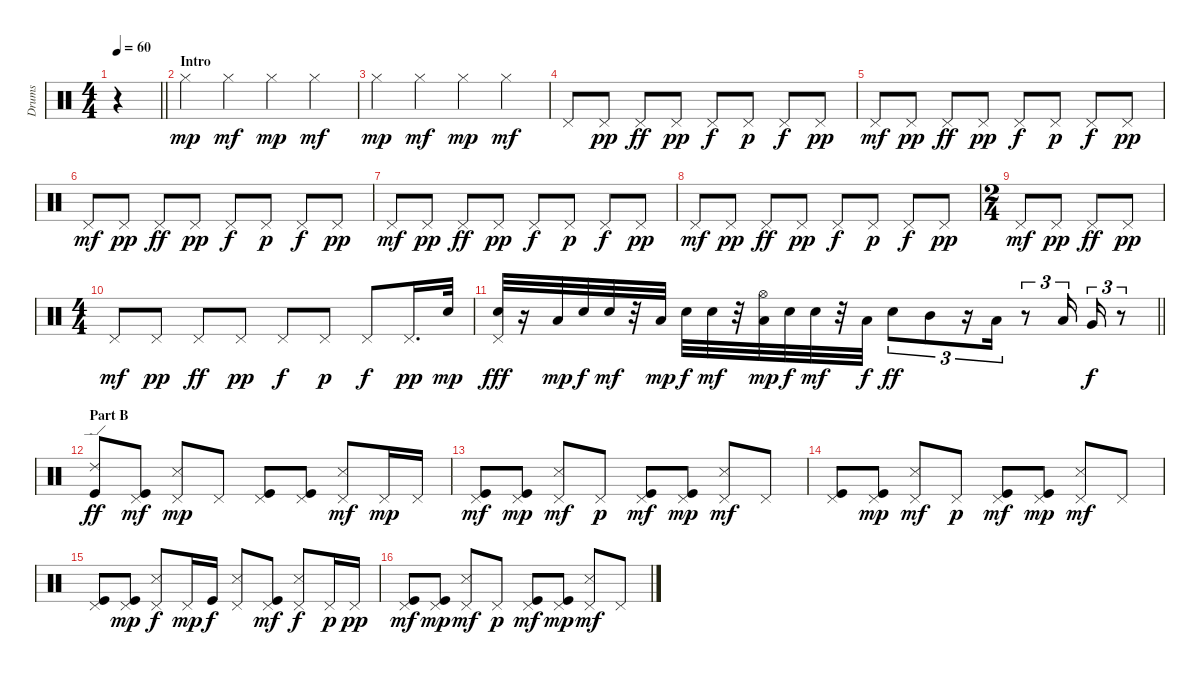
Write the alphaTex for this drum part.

\track ("Drums" "Drums") {instrument percussion}
\staff {score}
\articulation defaults
\ts (4 4)
\tempo 60
\clef neutral
\barLineRight lightlight
\ks c
r.4{dy mp} |
\section ("" "Intro")
"Hi-Hat (closed)".4{volume 10} "Hi-Hat (closed)".4{dy mf} "Hi-Hat (closed)".4{dy mp} "Hi-Hat (closed)".4{dy mf} |
"Hi-Hat (closed)".4{dy mp} "Hi-Hat (closed)".4{dy mf} "Hi-Hat (closed)".4{dy mp} "Hi-Hat (closed)".4{dy mf} |
"Pedal Hi-Hat (hit)".8 "Pedal Hi-Hat (hit)".8{dy pp} "Pedal Hi-Hat (hit)".8{dy ff} "Pedal Hi-Hat (hit)".8{dy pp} "Pedal Hi-Hat (hit)".8{dy f} "Pedal Hi-Hat (hit)".8{dy p} "Pedal Hi-Hat (hit)".8{dy f} "Pedal Hi-Hat (hit)".8{dy pp} |
"Pedal Hi-Hat (hit)".8{dy mf} "Pedal Hi-Hat (hit)".8{dy pp} "Pedal Hi-Hat (hit)".8{dy ff} "Pedal Hi-Hat (hit)".8{dy pp} "Pedal Hi-Hat (hit)".8{dy f} "Pedal Hi-Hat (hit)".8{dy p} "Pedal Hi-Hat (hit)".8{dy f} "Pedal Hi-Hat (hit)".8{dy pp} |
"Pedal Hi-Hat (hit)".8{dy mf} "Pedal Hi-Hat (hit)".8{dy pp} "Pedal Hi-Hat (hit)".8{dy ff} "Pedal Hi-Hat (hit)".8{dy pp} "Pedal Hi-Hat (hit)".8{dy f} "Pedal Hi-Hat (hit)".8{dy p} "Pedal Hi-Hat (hit)".8{dy f} "Pedal Hi-Hat (hit)".8{dy pp} |
"Pedal Hi-Hat (hit)".8{dy mf} "Pedal Hi-Hat (hit)".8{dy pp} "Pedal Hi-Hat (hit)".8{dy ff} "Pedal Hi-Hat (hit)".8{dy pp} "Pedal Hi-Hat (hit)".8{dy f} "Pedal Hi-Hat (hit)".8{dy p} "Pedal Hi-Hat (hit)".8{dy f} "Pedal Hi-Hat (hit)".8{dy pp} |
"Pedal Hi-Hat (hit)".8{dy mf} "Pedal Hi-Hat (hit)".8{dy pp} "Pedal Hi-Hat (hit)".8{dy ff} "Pedal Hi-Hat (hit)".8{dy pp} "Pedal Hi-Hat (hit)".8{dy f} "Pedal Hi-Hat (hit)".8{dy p} "Pedal Hi-Hat (hit)".8{dy f} "Pedal Hi-Hat (hit)".8{dy pp} |
\ts (2 4)
"Pedal Hi-Hat (hit)".8{dy mf} "Pedal Hi-Hat (hit)".8{dy pp} "Pedal Hi-Hat (hit)".8{dy ff} "Pedal Hi-Hat (hit)".8{dy pp} |
\ts (4 4)
"Pedal Hi-Hat (hit)".8{dy mf} "Pedal Hi-Hat (hit)".8{dy pp} "Pedal Hi-Hat (hit)".8{dy ff} "Pedal Hi-Hat (hit)".8{dy pp} "Pedal Hi-Hat (hit)".8{dy f} "Pedal Hi-Hat (hit)".8{dy p} "Pedal Hi-Hat (hit)".8{dy f} "Pedal Hi-Hat (hit)".16{d dy pp} "Electric Snare (hit)".32{dy mp} |
\barLineRight lightlight
("Pedal Hi-Hat (hit)" "Electric Snare (hit)").32{dy fff} r.16 "Low Tom (hit)".32{dy mp} "Electric Snare (hit)".32{dy f} "Electric Snare (hit)".32{dy mf} r.32 "Low Tom (hit)".32{dy mp} "Electric Snare (hit)".32{dy f} "Electric Snare (hit)".32{dy mf} r.32 ("Hi-Hat (open)" "Low Tom (hit)").32{dy mp} "Electric Snare (hit)".32{dy f} "Electric Snare (hit)".32{dy mf} r.32 "Low Tom (hit)".32{dy f} "Electric Snare (hit)".8{tu (3 2) dy ff} "Mid Tom (hit)".8{tu (3 2)} r.16{tu (3 2)} "Low Tom (hit)".16{tu (3 2)} r.8{tu (3 2)} "Low Tom (hit)".16{tu (3 2)} "Very Low Tom (hit)".16{tu (3 2) dy f} r.8{tu (3 2)} |
\section ("" "Part B")
("Ride (edge) 2" "Kick (hit)").8{dy ff volume 10} ("Pedal Hi-Hat (hit)" "Kick (hit)").8{dy mf} ("Pedal Hi-Hat (hit)" "Snare (side stick) 3").8{dy mp} "Pedal Hi-Hat (hit)".8 ("Pedal Hi-Hat (hit)" "Kick (hit)").8 ("Pedal Hi-Hat (hit)" "Kick (hit)").8 ("Pedal Hi-Hat (hit)" "Snare (side stick) 3").8{dy mf} "Pedal Hi-Hat (hit)".16{dy mp} "Pedal Hi-Hat (hit)".16 |
("Pedal Hi-Hat (hit)" "Kick (hit)").8{dy mf} ("Pedal Hi-Hat (hit)" "Kick (hit)").8{dy mp} ("Pedal Hi-Hat (hit)" "Snare (side stick) 3").8{dy mf} "Pedal Hi-Hat (hit)".8{dy p} ("Pedal Hi-Hat (hit)" "Kick (hit)").8{dy mf} ("Pedal Hi-Hat (hit)" "Kick (hit)").8{dy mp} ("Pedal Hi-Hat (hit)" "Snare (side stick) 3").8{dy mf} "Pedal Hi-Hat (hit)".8 |
("Pedal Hi-Hat (hit)" "Kick (hit)").8 ("Pedal Hi-Hat (hit)" "Kick (hit)").8{dy mp} ("Pedal Hi-Hat (hit)" "Snare (side stick) 3").8{dy mf} "Pedal Hi-Hat (hit)".8{dy p} ("Pedal Hi-Hat (hit)" "Kick (hit)").8{dy mf} ("Pedal Hi-Hat (hit)" "Kick (hit)").8{dy mp} ("Pedal Hi-Hat (hit)" "Snare (side stick) 3").8{dy mf} "Pedal Hi-Hat (hit)".8 |
("Pedal Hi-Hat (hit)" "Kick (hit)").8 ("Pedal Hi-Hat (hit)" "Kick (hit)").8{dy mp} ("Pedal Hi-Hat (hit)" "Snare (side stick) 3").8{dy f} "Pedal Hi-Hat (hit)".16{dy mp} "Kick (hit)".16{dy f} ("Pedal Hi-Hat (hit)" "Snare (side stick) 3").8 ("Pedal Hi-Hat (hit)" "Kick (hit)").8{dy mf} ("Pedal Hi-Hat (hit)" "Snare (side stick) 3").8{dy f} "Pedal Hi-Hat (hit)".16{dy p} "Pedal Hi-Hat (hit)".16{dy pp} |
("Pedal Hi-Hat (hit)" "Kick (hit)").8{dy mf} ("Pedal Hi-Hat (hit)" "Kick (hit)").8{dy mp} ("Pedal Hi-Hat (hit)" "Snare (side stick) 3").8{dy mf} "Pedal Hi-Hat (hit)".8{dy p} ("Pedal Hi-Hat (hit)" "Kick (hit)").8{dy mf} ("Pedal Hi-Hat (hit)" "Kick (hit)").8{dy mp} ("Pedal Hi-Hat (hit)" "Snare (side stick) 3").8{dy mf} "Pedal Hi-Hat (hit)".8
